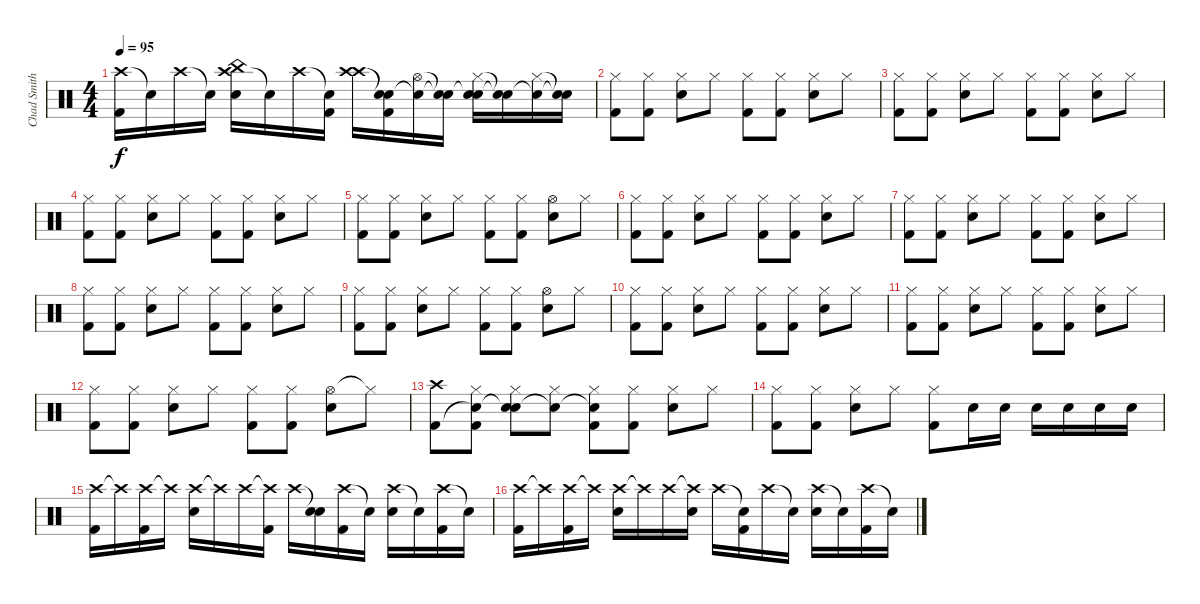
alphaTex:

\track ("Chad Smith" "Chad Smith") {instrument percussion}
\staff {score}
\articulation defaults
\ts (4 4)
\tempo 95
\clef neutral
\ks c
("Crash high (hit)" "Kick (hit) 2").16{dy f} "Snare (hit)"{t}.16 "Crash high (hit)".16 "Snare (hit)"{t}.16 ("Crash high (hit)" "China (hit)" "Snare (hit) 2").16 "Snare (hit)"{t}.16 "Crash high (hit)".16 ("Snare (hit)"{t} "Kick (hit) 2").16 ("Crash high (hit)" "Crash high (hit)").16 ("Snare (hit)"{t} "Snare (hit)"{t} "Kick (hit) 2").16 ("Hi-Hat (open)" "Snare (hit)"{t}).16 ("Snare (hit)"{t} "Snare (hit)"{t}).16 ("Hi-Hat (closed)" "Snare (hit)"{t} "Snare (hit) 2").16 ("Snare (hit)"{t} "Snare (hit)"{t}).16 ("Hi-Hat (closed)" "Snare (hit)"{t}).16 ("Snare (hit)"{t} "Snare (hit)"{t}).16 |
("Hi-Hat (closed)" "Kick (hit) 2").8 ("Hi-Hat (closed)" "Kick (hit) 2").8 ("Hi-Hat (closed)" "Snare (hit) 2").8 "Hi-Hat (closed)".8 ("Hi-Hat (closed)" "Kick (hit) 2").8 ("Hi-Hat (closed)" "Kick (hit) 2").8 ("Hi-Hat (closed)" "Snare (hit) 2").8 "Hi-Hat (closed)".8 |
("Hi-Hat (closed)" "Kick (hit) 2").8 ("Hi-Hat (closed)" "Kick (hit) 2").8 ("Hi-Hat (closed)" "Snare (hit) 2").8 "Hi-Hat (closed)".8 ("Hi-Hat (closed)" "Kick (hit) 2").8 ("Hi-Hat (closed)" "Kick (hit) 2").8 ("Hi-Hat (closed)" "Snare (hit) 2").8 "Hi-Hat (closed)".8 |
("Hi-Hat (closed)" "Kick (hit) 2").8 ("Hi-Hat (closed)" "Kick (hit) 2").8 ("Hi-Hat (closed)" "Snare (hit) 2").8 "Hi-Hat (closed)".8 ("Hi-Hat (closed)" "Kick (hit) 2").8 ("Hi-Hat (closed)" "Kick (hit) 2").8 ("Hi-Hat (closed)" "Snare (hit) 2").8 "Hi-Hat (closed)".8 |
("Hi-Hat (closed)" "Kick (hit) 2").8 ("Hi-Hat (closed)" "Kick (hit) 2").8 ("Hi-Hat (closed)" "Snare (hit) 2").8 "Hi-Hat (closed)".8 ("Hi-Hat (closed)" "Kick (hit) 2").8 ("Hi-Hat (closed)" "Kick (hit) 2").8 ("Hi-Hat (open)" "Snare (hit) 2").8 "Hi-Hat (closed)".8 |
("Hi-Hat (closed)" "Kick (hit) 2").8 ("Hi-Hat (closed)" "Kick (hit) 2").8 ("Hi-Hat (closed)" "Snare (hit) 2").8 "Hi-Hat (closed)".8 ("Hi-Hat (closed)" "Kick (hit) 2").8 ("Hi-Hat (closed)" "Kick (hit) 2").8 ("Hi-Hat (closed)" "Snare (hit) 2").8 "Hi-Hat (closed)".8 |
("Hi-Hat (closed)" "Kick (hit) 2").8 ("Hi-Hat (closed)" "Kick (hit) 2").8 ("Hi-Hat (closed)" "Snare (hit) 2").8 "Hi-Hat (closed)".8 ("Hi-Hat (closed)" "Kick (hit) 2").8 ("Hi-Hat (closed)" "Kick (hit) 2").8 ("Hi-Hat (closed)" "Snare (hit) 2").8 "Hi-Hat (closed)".8 |
("Hi-Hat (closed)" "Kick (hit) 2").8 ("Hi-Hat (closed)" "Kick (hit) 2").8 ("Hi-Hat (closed)" "Snare (hit) 2").8 "Hi-Hat (closed)".8 ("Hi-Hat (closed)" "Kick (hit) 2").8 ("Hi-Hat (closed)" "Kick (hit) 2").8 ("Hi-Hat (closed)" "Snare (hit) 2").8 "Hi-Hat (closed)".8 |
("Hi-Hat (closed)" "Kick (hit) 2").8 ("Hi-Hat (closed)" "Kick (hit) 2").8 ("Hi-Hat (closed)" "Snare (hit) 2").8 "Hi-Hat (closed)".8 ("Hi-Hat (closed)" "Kick (hit) 2").8 ("Hi-Hat (closed)" "Kick (hit) 2").8 ("Hi-Hat (open)" "Snare (hit) 2").8 "Hi-Hat (closed)".8 |
("Hi-Hat (closed)" "Kick (hit) 2").8 ("Hi-Hat (closed)" "Kick (hit) 2").8 ("Hi-Hat (closed)" "Snare (hit) 2").8 "Hi-Hat (closed)".8 ("Hi-Hat (closed)" "Kick (hit) 2").8 ("Hi-Hat (closed)" "Kick (hit) 2").8 ("Hi-Hat (closed)" "Snare (hit) 2").8 "Hi-Hat (closed)".8 |
("Hi-Hat (closed)" "Kick (hit) 2").8 ("Hi-Hat (closed)" "Kick (hit) 2").8 ("Hi-Hat (closed)" "Snare (hit) 2").8 "Hi-Hat (closed)".8 ("Hi-Hat (closed)" "Kick (hit) 2").8 ("Hi-Hat (closed)" "Kick (hit) 2").8 ("Hi-Hat (closed)" "Snare (hit) 2").8 "Hi-Hat (closed)".8 |
("Hi-Hat (closed)" "Kick (hit) 2").8 ("Hi-Hat (closed)" "Kick (hit) 2").8 ("Hi-Hat (closed)" "Snare (hit) 2").8 "Hi-Hat (closed)".8 ("Hi-Hat (closed)" "Kick (hit) 2").8 ("Hi-Hat (closed)" "Kick (hit) 2").8 ("Hi-Hat (open)" "Snare (hit) 2").8 "Hi-Hat (closed)"{t}.8 |
("Crash high (hit)" "Kick (hit) 2").8 ("Hi-Hat (closed)" "Snare (hit)"{t} "Kick (hit) 2").8 ("Hi-Hat (closed)" "Snare (hit)"{t} "Snare (hit) 2").8 ("Hi-Hat (closed)" "Snare (hit)"{t}).8 ("Hi-Hat (closed)" "Snare (hit)"{t} "Kick (hit) 2").8 ("Hi-Hat (closed)" "Kick (hit) 2").8 ("Hi-Hat (closed)" "Snare (hit) 2").8 "Hi-Hat (closed)".8 |
("Hi-Hat (closed)" "Kick (hit) 2").8 ("Hi-Hat (closed)" "Kick (hit) 2").8 ("Hi-Hat (closed)" "Snare (hit) 2").8 "Hi-Hat (closed)".8 ("Hi-Hat (closed)" "Kick (hit) 2").8 "Snare (hit) 2".16 "Snare (hit) 2".16 "Snare (hit) 2".16 "Snare (hit) 2".16 "Snare (hit) 2".16 "Snare (hit) 2".16 |
("Crash high (hit)" "Kick (hit) 2").16 "Crash high (hit)"{t}.16 ("Crash high (hit)" "Kick (hit) 2").16 "Crash high (hit)"{t}.16 ("Crash high (hit)" "Snare (hit) 2").16 "Crash high (hit)"{t}.16 "Crash high (hit)".16 ("Crash high (hit)"{t} "Kick (hit) 2").16 "Crash high (hit)".16 ("Snare (hit)"{t} "Snare (hit) 2").16 ("Crash high (hit)" "Kick (hit) 2").16 "Snare (hit)"{t}.16 ("Crash high (hit)" "Snare (hit) 2").16 "Snare (hit)"{t}.16 ("Crash high (hit)" "Kick (hit) 2").16 "Snare (hit)"{t}.16 |
("Crash high (hit)" "Kick (hit) 2").16 "Crash high (hit)"{t}.16 ("Crash high (hit)" "Kick (hit) 2").16 "Crash high (hit)"{t}.16 ("Crash high (hit)" "Snare (hit) 2").16 "Crash high (hit)"{t}.16 "Crash high (hit)".16 ("Crash high (hit)"{t} "Snare (hit) 2").16 "Crash high (hit)".16 ("Snare (hit)"{t} "Kick (hit) 2").16 "Crash high (hit)".16 "Snare (hit)"{t}.16 ("Crash high (hit)" "Snare (hit) 2").16 "Snare (hit)"{t}.16 ("Crash high (hit)" "Kick (hit) 2").16 "Snare (hit)"{t}.16
